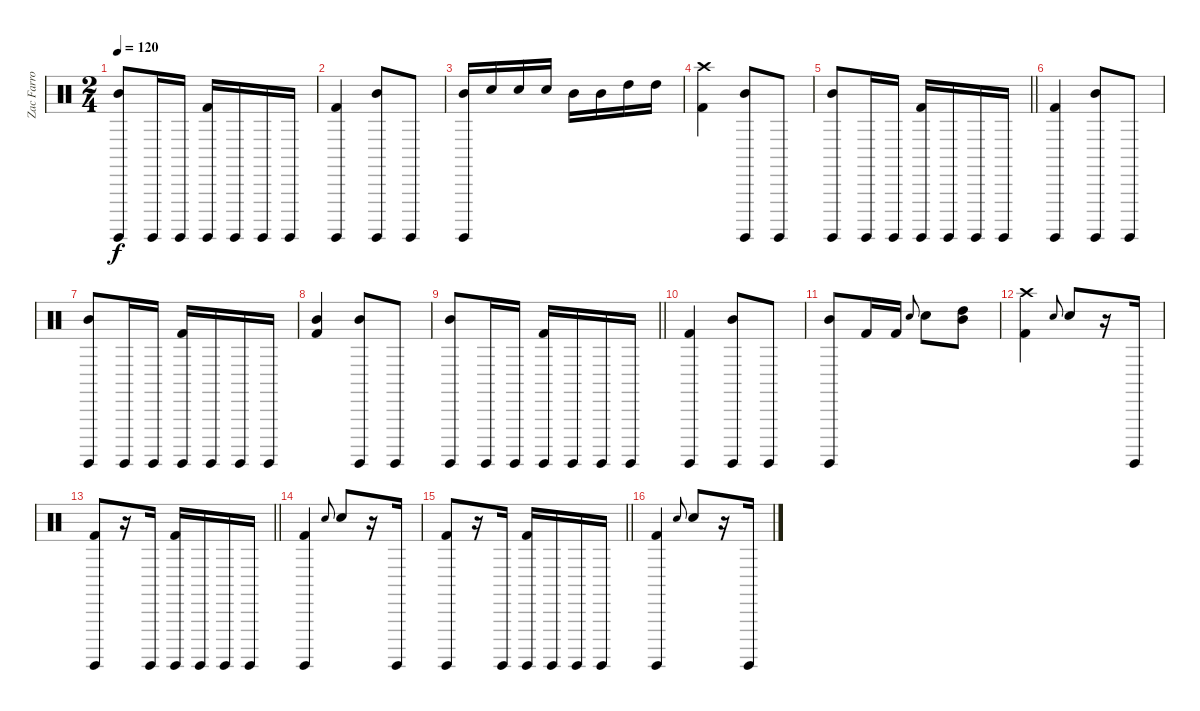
\track ("Zac Farro" "Zac Farro") {instrument percussion}
\staff {score}
\articulation defaults
\ts (2 4)
\tempo 120
\clef neutral
\ks c
("Surdo (hit)" "Mid Tom (hit)").8{dy f} "Surdo (hit)".16 "Surdo (hit)".16 ("Surdo (hit)" "Kick (hit) 2").16 "Surdo (hit)".16 "Surdo (hit)".16 "Surdo (hit)".16 |
("Surdo (hit)" "Kick (hit) 2").4 ("Surdo (hit)" "Mid Tom (hit)").8 "Surdo (hit)".8 |
("Surdo (hit)" "Mid Tom (hit)").16 "Electric Snare (hit)".16 "Electric Snare (hit)".16 "Electric Snare (hit)".16 "Mid Tom (hit)".16 "Mid Tom (hit)".16 "High Tom (hit)".16 "High Tom (hit)".16 |
("Crash high (hit)" "Kick (hit) 2").4 ("Surdo (hit)" "Mid Tom (hit)").8 "Surdo (hit)".8 |
\barLineRight lightlight
("Surdo (hit)" "Mid Tom (hit)").8 "Surdo (hit)".16 "Surdo (hit)".16 ("Surdo (hit)" "Kick (hit) 2").16 "Surdo (hit)".16 "Surdo (hit)".16 "Surdo (hit)".16 |
("Surdo (hit)" "Kick (hit) 2").4 ("Surdo (hit)" "Mid Tom (hit)").8 "Surdo (hit)".8 |
("Surdo (hit)" "Mid Tom (hit)").8 "Surdo (hit)".16 "Surdo (hit)".16 ("Surdo (hit)" "Kick (hit) 2").16 "Surdo (hit)".16 "Surdo (hit)".16 "Surdo (hit)".16 |
("Mid Tom (hit)" "Kick (hit) 2").4 ("Surdo (hit)" "Mid Tom (hit)").8 "Surdo (hit)".8 |
\barLineRight lightlight
("Surdo (hit)" "Mid Tom (hit)").8 "Surdo (hit)".16 "Surdo (hit)".16 ("Surdo (hit)" "Kick (hit) 2").16 "Surdo (hit)".16 "Surdo (hit)".16 "Surdo (hit)".16 |
("Surdo (hit)" "Kick (hit) 2").4 ("Surdo (hit)" "Mid Tom (hit)").8 "Surdo (hit)".8 |
("Surdo (hit)" "Mid Tom (hit)").8 "Kick (hit) 2".16 "Kick (hit) 2".16 "Electric Snare (hit)".8{gr onbeat} "Electric Snare (hit)".8 ("Mid Tom (hit)" "High Tom (hit)").8 |
("Kick (hit) 2" "Crash high (hit)").4 "Electric Snare (hit)".8{gr onbeat} "Electric Snare (hit)".8 r.16 "Surdo (hit)".16 |
\barLineRight lightlight
("Surdo (hit)" "Kick (hit) 2").8 r.16 "Surdo (hit)".16 ("Surdo (hit)" "Kick (hit) 2").16 "Surdo (hit)".16 "Surdo (hit)".16 "Surdo (hit)".16 |
("Kick (hit) 2" "Surdo (hit)").4 "Electric Snare (hit)".8{gr onbeat} "Electric Snare (hit)".8 r.16 "Surdo (hit)".16 |
\barLineRight lightlight
("Surdo (hit)" "Kick (hit) 2").8 r.16 "Surdo (hit)".16 ("Surdo (hit)" "Kick (hit) 2").16 "Surdo (hit)".16 "Surdo (hit)".16 "Surdo (hit)".16 |
("Kick (hit) 2" "Surdo (hit)").4 "Electric Snare (hit)".8{gr onbeat} "Electric Snare (hit)".8 r.16 "Surdo (hit)".16
